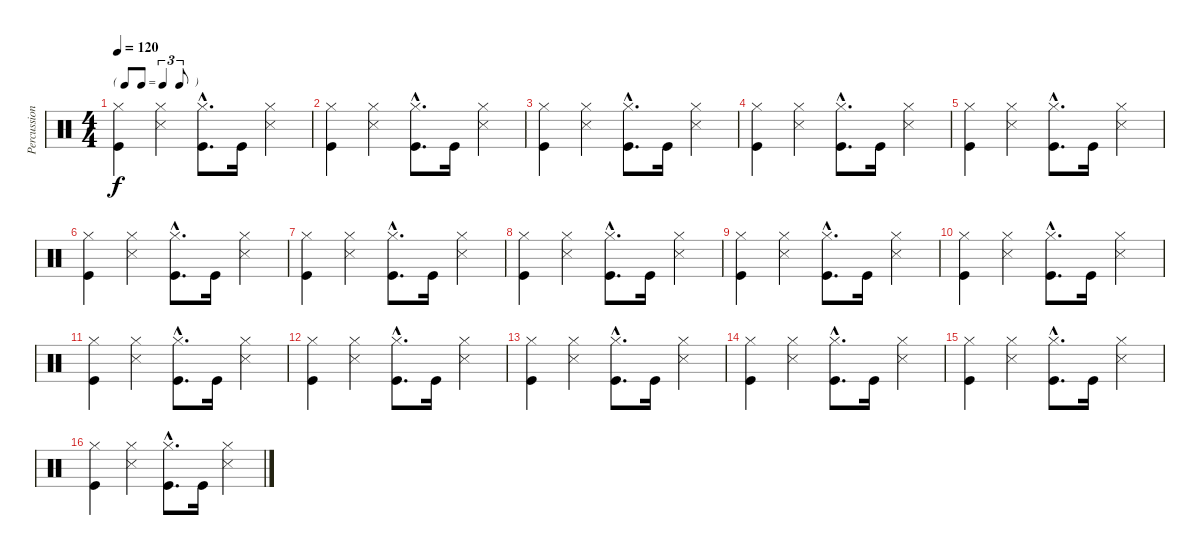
\track ("Percussion" "Percussion") {instrument percussion}
\staff {score}
\articulation defaults
\ts (4 4)
\tf triplet8th
\tempo 120
\clef neutral
\ks c
("Hi-Hat (closed)" "Kick (hit)").4{dy f} ("Hi-Hat (closed)" "Snare (side stick) 3").4 ("Hi-Hat (closed)"{hac} "Kick (hit)"{hac}).8{d} "Kick (hit)".16 ("Hi-Hat (closed)" "Snare (side stick) 3").4 |
("Hi-Hat (closed)" "Kick (hit)").4 ("Hi-Hat (closed)" "Snare (side stick) 3").4 ("Hi-Hat (closed)"{hac} "Kick (hit)"{hac}).8{d} "Kick (hit)".16 ("Hi-Hat (closed)" "Snare (side stick) 3").4 |
("Hi-Hat (closed)" "Kick (hit)").4 ("Hi-Hat (closed)" "Snare (side stick) 3").4 ("Hi-Hat (closed)"{hac} "Kick (hit)"{hac}).8{d} "Kick (hit)".16 ("Hi-Hat (closed)" "Snare (side stick) 3").4 |
("Hi-Hat (closed)" "Kick (hit)").4 ("Hi-Hat (closed)" "Snare (side stick) 3").4 ("Hi-Hat (closed)"{hac} "Kick (hit)"{hac}).8{d} "Kick (hit)".16 ("Hi-Hat (closed)" "Snare (side stick) 3").4 |
("Hi-Hat (closed)" "Kick (hit)").4 ("Hi-Hat (closed)" "Snare (side stick) 3").4 ("Hi-Hat (closed)"{hac} "Kick (hit)"{hac}).8{d} "Kick (hit)".16 ("Hi-Hat (closed)" "Snare (side stick) 3").4 |
("Hi-Hat (closed)" "Kick (hit)").4 ("Hi-Hat (closed)" "Snare (side stick) 3").4 ("Hi-Hat (closed)"{hac} "Kick (hit)"{hac}).8{d} "Kick (hit)".16 ("Hi-Hat (closed)" "Snare (side stick) 3").4 |
("Hi-Hat (closed)" "Kick (hit)").4 ("Hi-Hat (closed)" "Snare (side stick) 3").4 ("Hi-Hat (closed)"{hac} "Kick (hit)"{hac}).8{d} "Kick (hit)".16 ("Hi-Hat (closed)" "Snare (side stick) 3").4 |
("Hi-Hat (closed)" "Kick (hit)").4 ("Hi-Hat (closed)" "Snare (side stick) 3").4 ("Hi-Hat (closed)"{hac} "Kick (hit)"{hac}).8{d} "Kick (hit)".16 ("Hi-Hat (closed)" "Snare (side stick) 3").4 |
("Hi-Hat (closed)" "Kick (hit)").4 ("Hi-Hat (closed)" "Snare (side stick) 3").4 ("Hi-Hat (closed)"{hac} "Kick (hit)"{hac}).8{d} "Kick (hit)".16 ("Hi-Hat (closed)" "Snare (side stick) 3").4 |
("Hi-Hat (closed)" "Kick (hit)").4 ("Hi-Hat (closed)" "Snare (side stick) 3").4 ("Hi-Hat (closed)"{hac} "Kick (hit)"{hac}).8{d} "Kick (hit)".16 ("Hi-Hat (closed)" "Snare (side stick) 3").4 |
("Hi-Hat (closed)" "Kick (hit)").4 ("Hi-Hat (closed)" "Snare (side stick) 3").4 ("Hi-Hat (closed)"{hac} "Kick (hit)"{hac}).8{d} "Kick (hit)".16 ("Hi-Hat (closed)" "Snare (side stick) 3").4 |
("Hi-Hat (closed)" "Kick (hit)").4 ("Hi-Hat (closed)" "Snare (side stick) 3").4 ("Hi-Hat (closed)"{hac} "Kick (hit)"{hac}).8{d} "Kick (hit)".16 ("Hi-Hat (closed)" "Snare (side stick) 3").4 |
("Hi-Hat (closed)" "Kick (hit)").4 ("Hi-Hat (closed)" "Snare (side stick) 3").4 ("Hi-Hat (closed)"{hac} "Kick (hit)"{hac}).8{d} "Kick (hit)".16 ("Hi-Hat (closed)" "Snare (side stick) 3").4 |
("Hi-Hat (closed)" "Kick (hit)").4 ("Hi-Hat (closed)" "Snare (side stick) 3").4 ("Hi-Hat (closed)"{hac} "Kick (hit)"{hac}).8{d} "Kick (hit)".16 ("Hi-Hat (closed)" "Snare (side stick) 3").4 |
("Hi-Hat (closed)" "Kick (hit)").4 ("Hi-Hat (closed)" "Snare (side stick) 3").4 ("Hi-Hat (closed)"{hac} "Kick (hit)"{hac}).8{d} "Kick (hit)".16 ("Hi-Hat (closed)" "Snare (side stick) 3").4 |
("Hi-Hat (closed)" "Kick (hit)").4 ("Hi-Hat (closed)" "Snare (side stick) 3").4 ("Hi-Hat (closed)"{hac} "Kick (hit)"{hac}).8{d} "Kick (hit)".16 ("Hi-Hat (closed)" "Snare (side stick) 3").4
